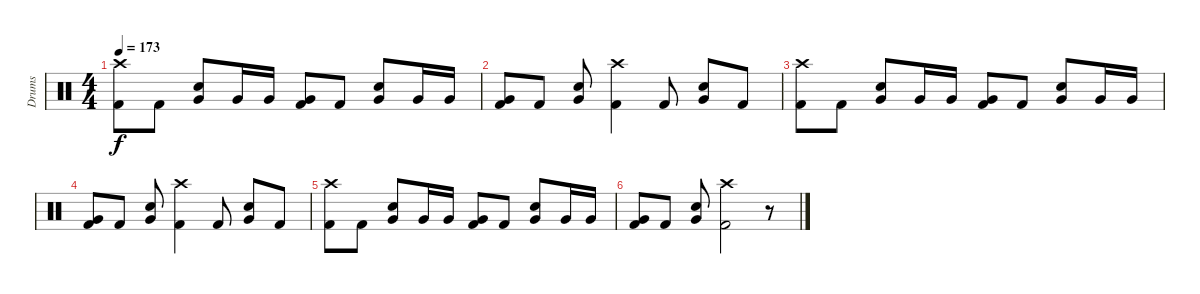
\track ("Drums" "Drums") {instrument percussion}
\staff {score}
\articulation defaults
\ts (4 4)
\tempo 173
\clef neutral
\ks c
("Crash high (hit)" "Kick (hit) 2").8{dy f} "Kick (hit) 2".8 ("Very Low Tom (hit)" "Electric Snare (hit)").8 "Very Low Tom (hit)".16 "Very Low Tom (hit)".16 ("Very Low Tom (hit)" "Kick (hit) 2").8 "Kick (hit) 2".8 ("Very Low Tom (hit)" "Electric Snare (hit)").8 "Very Low Tom (hit)".16 "Very Low Tom (hit)".16 |
("Very Low Tom (hit)" "Kick (hit) 2").8 "Kick (hit) 2".8 ("Very Low Tom (hit)" "Electric Snare (hit)").8 ("Crash high (hit)" "Kick (hit) 2").4 "Kick (hit) 2".8 ("Very Low Tom (hit)" "Electric Snare (hit)").8 "Kick (hit) 2".8 |
("Crash high (hit)" "Kick (hit) 2").8 "Kick (hit) 2".8 ("Very Low Tom (hit)" "Electric Snare (hit)").8 "Very Low Tom (hit)".16 "Very Low Tom (hit)".16 ("Very Low Tom (hit)" "Kick (hit) 2").8 "Kick (hit) 2".8 ("Very Low Tom (hit)" "Electric Snare (hit)").8 "Very Low Tom (hit)".16 "Very Low Tom (hit)".16 |
("Very Low Tom (hit)" "Kick (hit) 2").8 "Kick (hit) 2".8 ("Very Low Tom (hit)" "Electric Snare (hit)").8 ("Crash high (hit)" "Kick (hit) 2").4 "Kick (hit) 2".8 ("Very Low Tom (hit)" "Electric Snare (hit)").8 "Kick (hit) 2".8 |
("Crash high (hit)" "Kick (hit) 2").8 "Kick (hit) 2".8 ("Very Low Tom (hit)" "Electric Snare (hit)").8 "Very Low Tom (hit)".16 "Very Low Tom (hit)".16 ("Very Low Tom (hit)" "Kick (hit) 2").8 "Kick (hit) 2".8 ("Very Low Tom (hit)" "Electric Snare (hit)").8 "Very Low Tom (hit)".16 "Very Low Tom (hit)".16 |
("Very Low Tom (hit)" "Kick (hit) 2").8 "Kick (hit) 2".8 ("Very Low Tom (hit)" "Electric Snare (hit)").8 ("Crash high (hit)" "Kick (hit) 2").2 r.8
